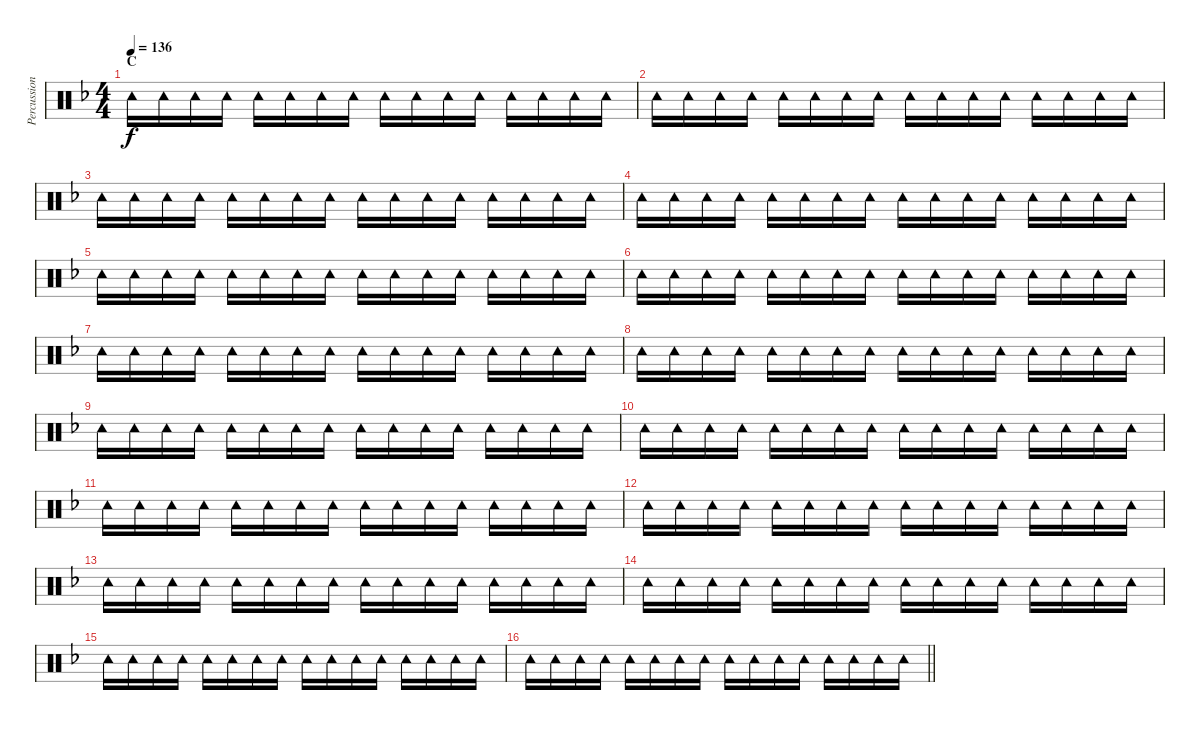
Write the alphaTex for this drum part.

\track ("Percussion" "Percussion") {instrument percussion}
\staff {score}
\articulation defaults
\ts (4 4)
\section ("" "C")
\tempo 136
\clef neutral
\ks dminor "Tambourine (hit)".16{dy f} "Tambourine (hit)".16 "Tambourine (hit)".16 "Tambourine (hit)".16 "Tambourine (hit)".16 "Tambourine (hit)".16 "Tambourine (hit)".16 "Tambourine (hit)".16 "Tambourine (hit)".16 "Tambourine (hit)".16 "Tambourine (hit)".16 "Tambourine (hit)".16 "Tambourine (hit)".16 "Tambourine (hit)".16 "Tambourine (hit)".16 "Tambourine (hit)".16
|
"Tambourine (hit)".16 "Tambourine (hit)".16 "Tambourine (hit)".16 "Tambourine (hit)".16 "Tambourine (hit)".16 "Tambourine (hit)".16 "Tambourine (hit)".16 "Tambourine (hit)".16 "Tambourine (hit)".16 "Tambourine (hit)".16 "Tambourine (hit)".16 "Tambourine (hit)".16 "Tambourine (hit)".16 "Tambourine (hit)".16 "Tambourine (hit)".16 "Tambourine (hit)".16 |
"Tambourine (hit)".16 "Tambourine (hit)".16 "Tambourine (hit)".16 "Tambourine (hit)".16 "Tambourine (hit)".16 "Tambourine (hit)".16 "Tambourine (hit)".16 "Tambourine (hit)".16 "Tambourine (hit)".16 "Tambourine (hit)".16 "Tambourine (hit)".16 "Tambourine (hit)".16 "Tambourine (hit)".16 "Tambourine (hit)".16 "Tambourine (hit)".16 "Tambourine (hit)".16 |
"Tambourine (hit)".16 "Tambourine (hit)".16 "Tambourine (hit)".16 "Tambourine (hit)".16 "Tambourine (hit)".16 "Tambourine (hit)".16 "Tambourine (hit)".16 "Tambourine (hit)".16 "Tambourine (hit)".16 "Tambourine (hit)".16 "Tambourine (hit)".16 "Tambourine (hit)".16 "Tambourine (hit)".16 "Tambourine (hit)".16 "Tambourine (hit)".16 "Tambourine (hit)".16 |
"Tambourine (hit)".16 "Tambourine (hit)".16 "Tambourine (hit)".16 "Tambourine (hit)".16 "Tambourine (hit)".16 "Tambourine (hit)".16 "Tambourine (hit)".16 "Tambourine (hit)".16 "Tambourine (hit)".16 "Tambourine (hit)".16 "Tambourine (hit)".16 "Tambourine (hit)".16 "Tambourine (hit)".16 "Tambourine (hit)".16 "Tambourine (hit)".16 "Tambourine (hit)".16 |
"Tambourine (hit)".16 "Tambourine (hit)".16 "Tambourine (hit)".16 "Tambourine (hit)".16 "Tambourine (hit)".16 "Tambourine (hit)".16 "Tambourine (hit)".16 "Tambourine (hit)".16 "Tambourine (hit)".16 "Tambourine (hit)".16 "Tambourine (hit)".16 "Tambourine (hit)".16 "Tambourine (hit)".16 "Tambourine (hit)".16 "Tambourine (hit)".16 "Tambourine (hit)".16 |
"Tambourine (hit)".16 "Tambourine (hit)".16 "Tambourine (hit)".16 "Tambourine (hit)".16 "Tambourine (hit)".16 "Tambourine (hit)".16 "Tambourine (hit)".16 "Tambourine (hit)".16 "Tambourine (hit)".16 "Tambourine (hit)".16 "Tambourine (hit)".16 "Tambourine (hit)".16 "Tambourine (hit)".16 "Tambourine (hit)".16 "Tambourine (hit)".16 "Tambourine (hit)".16 |
"Tambourine (hit)".16 "Tambourine (hit)".16 "Tambourine (hit)".16 "Tambourine (hit)".16 "Tambourine (hit)".16 "Tambourine (hit)".16 "Tambourine (hit)".16 "Tambourine (hit)".16 "Tambourine (hit)".16 "Tambourine (hit)".16 "Tambourine (hit)".16 "Tambourine (hit)".16 "Tambourine (hit)".16 "Tambourine (hit)".16 "Tambourine (hit)".16 "Tambourine (hit)".16 |
"Tambourine (hit)".16 "Tambourine (hit)".16 "Tambourine (hit)".16 "Tambourine (hit)".16 "Tambourine (hit)".16 "Tambourine (hit)".16 "Tambourine (hit)".16 "Tambourine (hit)".16 "Tambourine (hit)".16 "Tambourine (hit)".16 "Tambourine (hit)".16 "Tambourine (hit)".16 "Tambourine (hit)".16 "Tambourine (hit)".16 "Tambourine (hit)".16 "Tambourine (hit)".16 |
"Tambourine (hit)".16 "Tambourine (hit)".16 "Tambourine (hit)".16 "Tambourine (hit)".16 "Tambourine (hit)".16 "Tambourine (hit)".16 "Tambourine (hit)".16 "Tambourine (hit)".16 "Tambourine (hit)".16 "Tambourine (hit)".16 "Tambourine (hit)".16 "Tambourine (hit)".16 "Tambourine (hit)".16 "Tambourine (hit)".16 "Tambourine (hit)".16 "Tambourine (hit)".16 |
"Tambourine (hit)".16 "Tambourine (hit)".16 "Tambourine (hit)".16 "Tambourine (hit)".16 "Tambourine (hit)".16 "Tambourine (hit)".16 "Tambourine (hit)".16 "Tambourine (hit)".16 "Tambourine (hit)".16 "Tambourine (hit)".16 "Tambourine (hit)".16 "Tambourine (hit)".16 "Tambourine (hit)".16 "Tambourine (hit)".16 "Tambourine (hit)".16 "Tambourine (hit)".16 |
"Tambourine (hit)".16 "Tambourine (hit)".16 "Tambourine (hit)".16 "Tambourine (hit)".16 "Tambourine (hit)".16 "Tambourine (hit)".16 "Tambourine (hit)".16 "Tambourine (hit)".16 "Tambourine (hit)".16 "Tambourine (hit)".16 "Tambourine (hit)".16 "Tambourine (hit)".16 "Tambourine (hit)".16 "Tambourine (hit)".16 "Tambourine (hit)".16 "Tambourine (hit)".16 |
"Tambourine (hit)".16 "Tambourine (hit)".16 "Tambourine (hit)".16 "Tambourine (hit)".16 "Tambourine (hit)".16 "Tambourine (hit)".16 "Tambourine (hit)".16 "Tambourine (hit)".16 "Tambourine (hit)".16 "Tambourine (hit)".16 "Tambourine (hit)".16 "Tambourine (hit)".16 "Tambourine (hit)".16 "Tambourine (hit)".16 "Tambourine (hit)".16 "Tambourine (hit)".16 |
"Tambourine (hit)".16 "Tambourine (hit)".16 "Tambourine (hit)".16 "Tambourine (hit)".16 "Tambourine (hit)".16 "Tambourine (hit)".16 "Tambourine (hit)".16 "Tambourine (hit)".16 "Tambourine (hit)".16 "Tambourine (hit)".16 "Tambourine (hit)".16 "Tambourine (hit)".16 "Tambourine (hit)".16 "Tambourine (hit)".16 "Tambourine (hit)".16 "Tambourine (hit)".16 |
"Tambourine (hit)".16 "Tambourine (hit)".16 "Tambourine (hit)".16 "Tambourine (hit)".16 "Tambourine (hit)".16 "Tambourine (hit)".16 "Tambourine (hit)".16 "Tambourine (hit)".16 "Tambourine (hit)".16 "Tambourine (hit)".16 "Tambourine (hit)".16 "Tambourine (hit)".16 "Tambourine (hit)".16 "Tambourine (hit)".16 "Tambourine (hit)".16 "Tambourine (hit)".16 |
\barLineRight lightlight "Tambourine (hit)".16 "Tambourine (hit)".16 "Tambourine (hit)".16 "Tambourine (hit)".16 "Tambourine (hit)".16 "Tambourine (hit)".16 "Tambourine (hit)".16 "Tambourine (hit)".16 "Tambourine (hit)".16 "Tambourine (hit)".16 "Tambourine (hit)".16 "Tambourine (hit)".16 "Tambourine (hit)".16 "Tambourine (hit)".16 "Tambourine (hit)".16 "Tambourine (hit)".16
